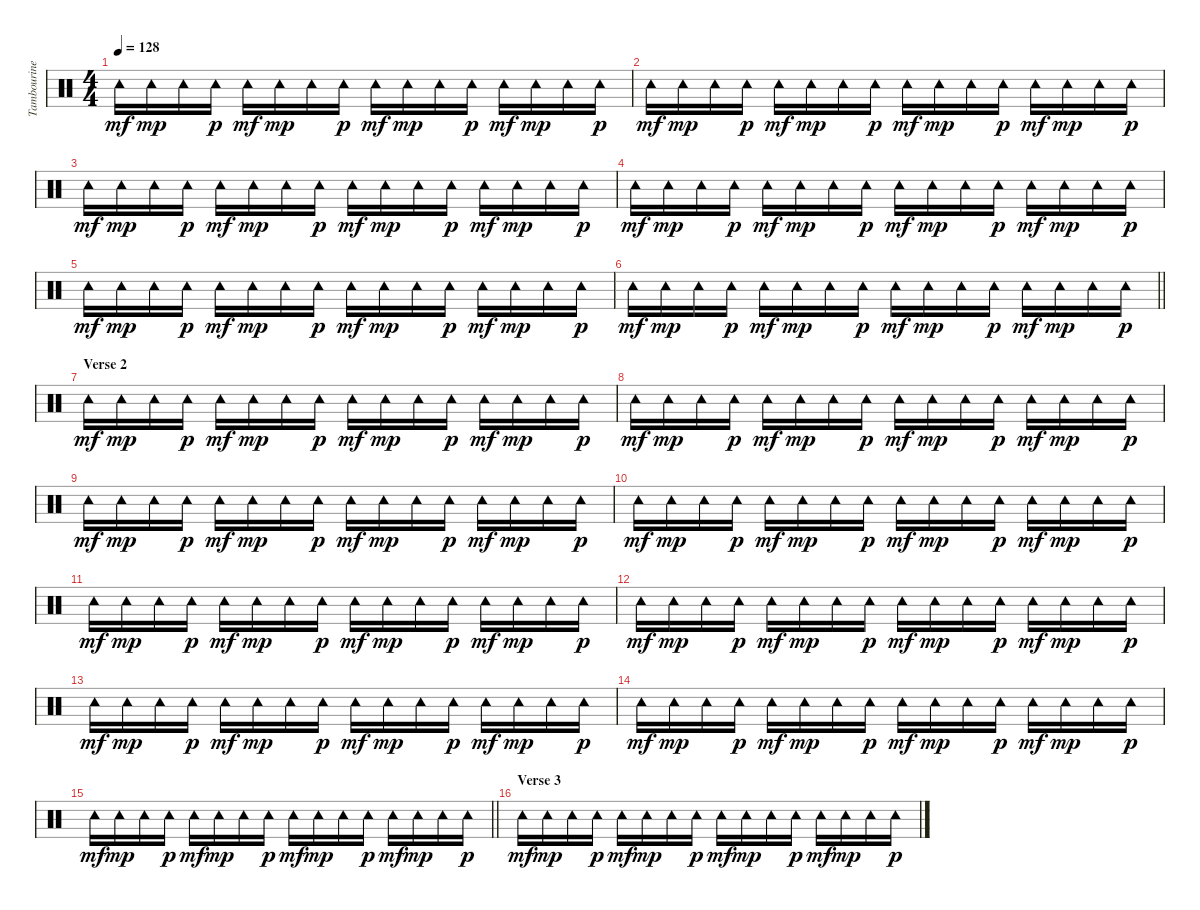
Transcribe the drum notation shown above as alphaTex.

\track ("Tambourine" "Tambourine") {instrument percussion}
\staff {score}
\articulation defaults
\ts (4 4)
\tempo 128
\clef neutral
\ks c "Tambourine (hit)".16{dy mf} "Tambourine (hit)".16{dy mp} "Tambourine (hit)".16 "Tambourine (hit)".16{dy p} "Tambourine (hit)".16{dy mf} "Tambourine (hit)".16{dy mp} "Tambourine (hit)".16 "Tambourine (hit)".16{dy p} "Tambourine (hit)".16{dy mf} "Tambourine (hit)".16{dy mp} "Tambourine (hit)".16 "Tambourine (hit)".16{dy p} "Tambourine (hit)".16{dy mf} "Tambourine (hit)".16{dy mp} "Tambourine (hit)".16 "Tambourine (hit)".16{dy p}
|
"Tambourine (hit)".16{dy mf} "Tambourine (hit)".16{dy mp} "Tambourine (hit)".16 "Tambourine (hit)".16{dy p} "Tambourine (hit)".16{dy mf} "Tambourine (hit)".16{dy mp} "Tambourine (hit)".16 "Tambourine (hit)".16{dy p} "Tambourine (hit)".16{dy mf} "Tambourine (hit)".16{dy mp} "Tambourine (hit)".16 "Tambourine (hit)".16{dy p} "Tambourine (hit)".16{dy mf} "Tambourine (hit)".16{dy mp} "Tambourine (hit)".16 "Tambourine (hit)".16{dy p} |
"Tambourine (hit)".16{dy mf} "Tambourine (hit)".16{dy mp} "Tambourine (hit)".16 "Tambourine (hit)".16{dy p} "Tambourine (hit)".16{dy mf} "Tambourine (hit)".16{dy mp} "Tambourine (hit)".16 "Tambourine (hit)".16{dy p} "Tambourine (hit)".16{dy mf} "Tambourine (hit)".16{dy mp} "Tambourine (hit)".16 "Tambourine (hit)".16{dy p} "Tambourine (hit)".16{dy mf} "Tambourine (hit)".16{dy mp} "Tambourine (hit)".16 "Tambourine (hit)".16{dy p} |
"Tambourine (hit)".16{dy mf} "Tambourine (hit)".16{dy mp} "Tambourine (hit)".16 "Tambourine (hit)".16{dy p} "Tambourine (hit)".16{dy mf} "Tambourine (hit)".16{dy mp} "Tambourine (hit)".16 "Tambourine (hit)".16{dy p} "Tambourine (hit)".16{dy mf} "Tambourine (hit)".16{dy mp} "Tambourine (hit)".16 "Tambourine (hit)".16{dy p} "Tambourine (hit)".16{dy mf} "Tambourine (hit)".16{dy mp} "Tambourine (hit)".16 "Tambourine (hit)".16{dy p} |
"Tambourine (hit)".16{dy mf} "Tambourine (hit)".16{dy mp} "Tambourine (hit)".16 "Tambourine (hit)".16{dy p} "Tambourine (hit)".16{dy mf} "Tambourine (hit)".16{dy mp} "Tambourine (hit)".16 "Tambourine (hit)".16{dy p} "Tambourine (hit)".16{dy mf} "Tambourine (hit)".16{dy mp} "Tambourine (hit)".16 "Tambourine (hit)".16{dy p} "Tambourine (hit)".16{dy mf} "Tambourine (hit)".16{dy mp} "Tambourine (hit)".16 "Tambourine (hit)".16{dy p} |
\barLineRight lightlight "Tambourine (hit)".16{dy mf} "Tambourine (hit)".16{dy mp} "Tambourine (hit)".16 "Tambourine (hit)".16{dy p} "Tambourine (hit)".16{dy mf} "Tambourine (hit)".16{dy mp} "Tambourine (hit)".16 "Tambourine (hit)".16{dy p} "Tambourine (hit)".16{dy mf} "Tambourine (hit)".16{dy mp} "Tambourine (hit)".16 "Tambourine (hit)".16{dy p} "Tambourine (hit)".16{dy mf} "Tambourine (hit)".16{dy mp} "Tambourine (hit)".16 "Tambourine (hit)".16{dy p}
|
\section ("" "Verse 2")
"Tambourine (hit)".16{dy mf} "Tambourine (hit)".16{dy mp} "Tambourine (hit)".16 "Tambourine (hit)".16{dy p} "Tambourine (hit)".16{dy mf} "Tambourine (hit)".16{dy mp} "Tambourine (hit)".16 "Tambourine (hit)".16{dy p} "Tambourine (hit)".16{dy mf} "Tambourine (hit)".16{dy mp} "Tambourine (hit)".16 "Tambourine (hit)".16{dy p} "Tambourine (hit)".16{dy mf} "Tambourine (hit)".16{dy mp} "Tambourine (hit)".16 "Tambourine (hit)".16{dy p} |
"Tambourine (hit)".16{dy mf} "Tambourine (hit)".16{dy mp} "Tambourine (hit)".16 "Tambourine (hit)".16{dy p} "Tambourine (hit)".16{dy mf} "Tambourine (hit)".16{dy mp} "Tambourine (hit)".16 "Tambourine (hit)".16{dy p} "Tambourine (hit)".16{dy mf} "Tambourine (hit)".16{dy mp} "Tambourine (hit)".16 "Tambourine (hit)".16{dy p} "Tambourine (hit)".16{dy mf} "Tambourine (hit)".16{dy mp} "Tambourine (hit)".16 "Tambourine (hit)".16{dy p} |
"Tambourine (hit)".16{dy mf} "Tambourine (hit)".16{dy mp} "Tambourine (hit)".16 "Tambourine (hit)".16{dy p} "Tambourine (hit)".16{dy mf} "Tambourine (hit)".16{dy mp} "Tambourine (hit)".16 "Tambourine (hit)".16{dy p} "Tambourine (hit)".16{dy mf} "Tambourine (hit)".16{dy mp} "Tambourine (hit)".16 "Tambourine (hit)".16{dy p} "Tambourine (hit)".16{dy mf} "Tambourine (hit)".16{dy mp} "Tambourine (hit)".16 "Tambourine (hit)".16{dy p} |
"Tambourine (hit)".16{dy mf} "Tambourine (hit)".16{dy mp} "Tambourine (hit)".16 "Tambourine (hit)".16{dy p} "Tambourine (hit)".16{dy mf} "Tambourine (hit)".16{dy mp} "Tambourine (hit)".16 "Tambourine (hit)".16{dy p} "Tambourine (hit)".16{dy mf} "Tambourine (hit)".16{dy mp} "Tambourine (hit)".16 "Tambourine (hit)".16{dy p} "Tambourine (hit)".16{dy mf} "Tambourine (hit)".16{dy mp} "Tambourine (hit)".16 "Tambourine (hit)".16{dy p} |
"Tambourine (hit)".16{dy mf} "Tambourine (hit)".16{dy mp} "Tambourine (hit)".16 "Tambourine (hit)".16{dy p} "Tambourine (hit)".16{dy mf} "Tambourine (hit)".16{dy mp} "Tambourine (hit)".16 "Tambourine (hit)".16{dy p} "Tambourine (hit)".16{dy mf} "Tambourine (hit)".16{dy mp} "Tambourine (hit)".16 "Tambourine (hit)".16{dy p} "Tambourine (hit)".16{dy mf} "Tambourine (hit)".16{dy mp} "Tambourine (hit)".16 "Tambourine (hit)".16{dy p} |
"Tambourine (hit)".16{dy mf} "Tambourine (hit)".16{dy mp} "Tambourine (hit)".16 "Tambourine (hit)".16{dy p} "Tambourine (hit)".16{dy mf} "Tambourine (hit)".16{dy mp} "Tambourine (hit)".16 "Tambourine (hit)".16{dy p} "Tambourine (hit)".16{dy mf} "Tambourine (hit)".16{dy mp} "Tambourine (hit)".16 "Tambourine (hit)".16{dy p} "Tambourine (hit)".16{dy mf} "Tambourine (hit)".16{dy mp} "Tambourine (hit)".16 "Tambourine (hit)".16{dy p} |
"Tambourine (hit)".16{dy mf} "Tambourine (hit)".16{dy mp} "Tambourine (hit)".16 "Tambourine (hit)".16{dy p} "Tambourine (hit)".16{dy mf} "Tambourine (hit)".16{dy mp} "Tambourine (hit)".16 "Tambourine (hit)".16{dy p} "Tambourine (hit)".16{dy mf} "Tambourine (hit)".16{dy mp} "Tambourine (hit)".16 "Tambourine (hit)".16{dy p} "Tambourine (hit)".16{dy mf} "Tambourine (hit)".16{dy mp} "Tambourine (hit)".16 "Tambourine (hit)".16{dy p} |
"Tambourine (hit)".16{dy mf} "Tambourine (hit)".16{dy mp} "Tambourine (hit)".16 "Tambourine (hit)".16{dy p} "Tambourine (hit)".16{dy mf} "Tambourine (hit)".16{dy mp} "Tambourine (hit)".16 "Tambourine (hit)".16{dy p} "Tambourine (hit)".16{dy mf} "Tambourine (hit)".16{dy mp} "Tambourine (hit)".16 "Tambourine (hit)".16{dy p} "Tambourine (hit)".16{dy mf} "Tambourine (hit)".16{dy mp} "Tambourine (hit)".16 "Tambourine (hit)".16{dy p} |
\barLineRight lightlight "Tambourine (hit)".16{dy mf} "Tambourine (hit)".16{dy mp} "Tambourine (hit)".16 "Tambourine (hit)".16{dy p} "Tambourine (hit)".16{dy mf} "Tambourine (hit)".16{dy mp} "Tambourine (hit)".16 "Tambourine (hit)".16{dy p} "Tambourine (hit)".16{dy mf} "Tambourine (hit)".16{dy mp} "Tambourine (hit)".16 "Tambourine (hit)".16{dy p} "Tambourine (hit)".16{dy mf} "Tambourine (hit)".16{dy mp} "Tambourine (hit)".16 "Tambourine (hit)".16{dy p}
|
\section ("" "Verse 3")
"Tambourine (hit)".16{dy mf} "Tambourine (hit)".16{dy mp} "Tambourine (hit)".16 "Tambourine (hit)".16{dy p} "Tambourine (hit)".16{dy mf} "Tambourine (hit)".16{dy mp} "Tambourine (hit)".16 "Tambourine (hit)".16{dy p} "Tambourine (hit)".16{dy mf} "Tambourine (hit)".16{dy mp} "Tambourine (hit)".16 "Tambourine (hit)".16{dy p} "Tambourine (hit)".16{dy mf} "Tambourine (hit)".16{dy mp} "Tambourine (hit)".16 "Tambourine (hit)".16{dy p}
